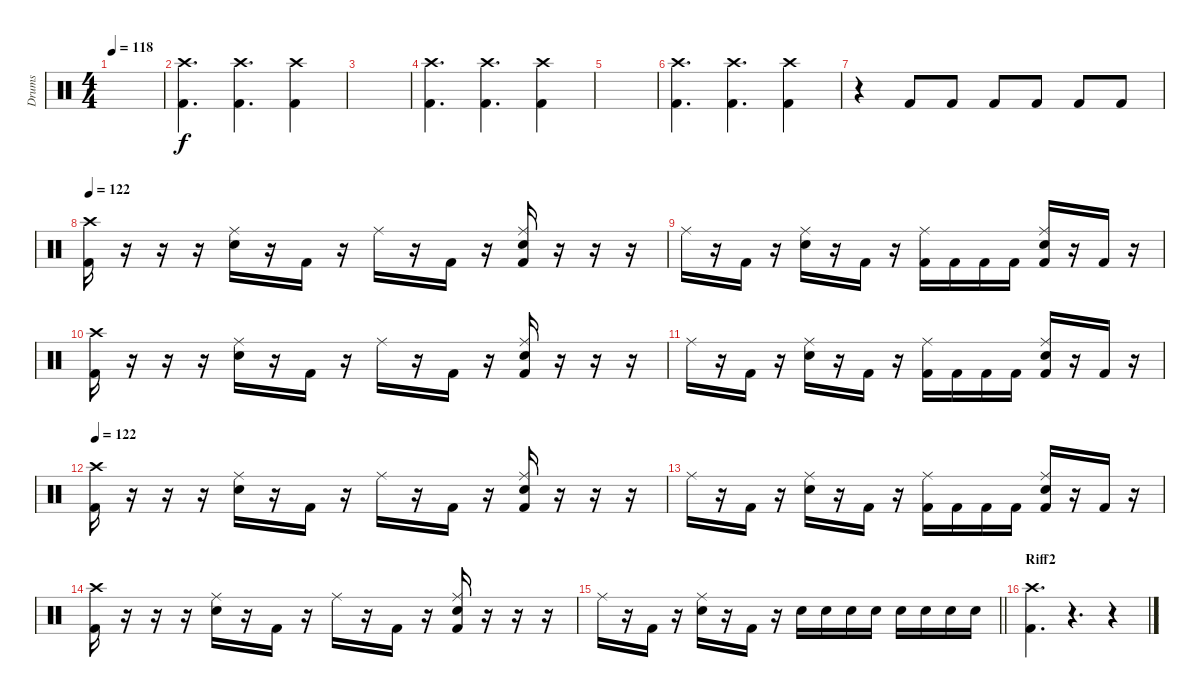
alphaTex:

\track ("Drums" "Drums") {instrument percussion}
\staff {score}
\articulation defaults
\ts (4 4)
\tempo 118
\clef neutral
\ks c
|
("Crash high (hit)" "Kick (hit) 2").4{d} ("Crash high (hit)" "Kick (hit) 2").4{d} ("Crash high (hit)" "Kick (hit) 2").4 |
|
("Crash high (hit)" "Kick (hit) 2").4{d} ("Crash high (hit)" "Kick (hit) 2").4{d} ("Crash high (hit)" "Kick (hit) 2").4 |
|
("Crash high (hit)" "Kick (hit) 2").4{d} ("Crash high (hit)" "Kick (hit) 2").4{d} ("Crash high (hit)" "Kick (hit) 2").4 |
r.4 "Kick (hit) 2".8 "Kick (hit) 2".8 "Kick (hit) 2".8 "Kick (hit) 2".8 "Kick (hit) 2".8 "Kick (hit) 2".8 |
\tempo 122
("Crash high (hit)" "Kick (hit) 2").16 r.16 r.16 r.16 ("Ride (middle)" "Snare (hit) 2").16 r.16 "Kick (hit) 2".16 r.16 "Ride (middle)".16 r.16 "Kick (hit) 2".16 r.16 ("Ride (middle)" "Snare (hit) 2" "Kick (hit) 2").16 r.16 r.16 r.16 |
"Ride (middle)".16 r.16 "Kick (hit) 2".16 r.16 ("Ride (middle)" "Snare (hit) 2").16 r.16 "Kick (hit) 2".16 r.16 ("Ride (middle)" "Kick (hit) 2").16 "Kick (hit) 2".16 "Kick (hit) 2".16 "Kick (hit) 2".16 ("Ride (middle)" "Snare (hit) 2" "Kick (hit) 2").16 r.16 "Kick (hit) 2".16 r.16 |
("Crash high (hit)" "Kick (hit) 2").16 r.16 r.16 r.16 ("Ride (middle)" "Snare (hit) 2").16 r.16 "Kick (hit) 2".16 r.16 "Ride (middle)".16 r.16 "Kick (hit) 2".16 r.16 ("Ride (middle)" "Snare (hit) 2" "Kick (hit) 2").16 r.16 r.16 r.16 |
"Ride (middle)".16 r.16 "Kick (hit) 2".16 r.16 ("Ride (middle)" "Snare (hit) 2").16 r.16 "Kick (hit) 2".16 r.16 ("Ride (middle)" "Kick (hit) 2").16 "Kick (hit) 2".16 "Kick (hit) 2".16 "Kick (hit) 2".16 ("Ride (middle)" "Snare (hit) 2" "Kick (hit) 2").16 r.16 "Kick (hit) 2".16 r.16 |
\tempo 122
("Crash high (hit)" "Kick (hit) 2").16 r.16 r.16 r.16 ("Ride (middle)" "Snare (hit) 2").16 r.16 "Kick (hit) 2".16 r.16 "Ride (middle)".16 r.16 "Kick (hit) 2".16 r.16 ("Ride (middle)" "Snare (hit) 2" "Kick (hit) 2").16 r.16 r.16 r.16 |
"Ride (middle)".16 r.16 "Kick (hit) 2".16 r.16 ("Ride (middle)" "Snare (hit) 2").16 r.16 "Kick (hit) 2".16 r.16 ("Ride (middle)" "Kick (hit) 2").16 "Kick (hit) 2".16 "Kick (hit) 2".16 "Kick (hit) 2".16 ("Ride (middle)" "Snare (hit) 2" "Kick (hit) 2").16 r.16 "Kick (hit) 2".16 r.16 |
("Crash high (hit)" "Kick (hit) 2").16 r.16 r.16 r.16 ("Ride (middle)" "Snare (hit) 2").16 r.16 "Kick (hit) 2".16 r.16 "Ride (middle)".16 r.16 "Kick (hit) 2".16 r.16 ("Ride (middle)" "Snare (hit) 2" "Kick (hit) 2").16 r.16 r.16 r.16 |
\barLineRight lightlight "Ride (middle)".16
r.16 "Kick (hit) 2".16 r.16 ("Ride (middle)" "Snare (hit) 2").16 r.16 "Kick (hit) 2".16 r.16 "Snare (hit) 2".16 "Snare (hit) 2".16 "Snare (hit) 2".16 "Snare (hit) 2".16 "Snare (hit) 2".16 "Snare (hit) 2".16 "Snare (hit) 2".16 "Snare (hit) 2".16 |
\section ("" "Riff2")
("Crash high (hit)" "Kick (hit) 2").4{d} r.4{d} r.4
